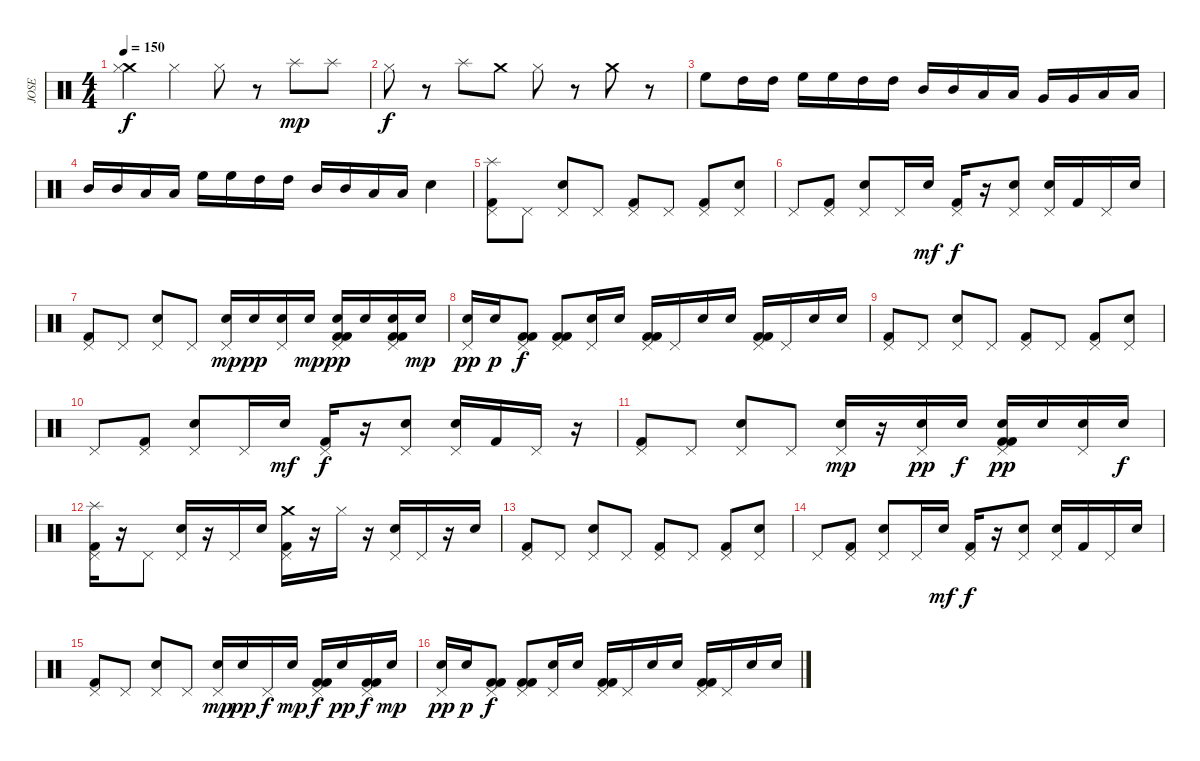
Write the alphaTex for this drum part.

\track ("JOSE" "JOSE") {instrument percussion}
\staff {score}
\articulation defaults
\ts (4 4)
\tempo 150
\clef neutral
\ks c
("Crash medium (hit)" "Hi-Hat (closed)").4{dy f} "Hi-Hat (closed)".4 "Hi-Hat (closed)".8 r.8 "Splash (hit)".8{dy mp} "Splash (hit)".8 |
"Hi-Hat (closed)".8{dy f} r.8 "Splash (hit)".8 "Crash medium (hit)".8 "Hi-Hat (closed)".8 r.8 "Crash medium (hit)".8 r.8 |
"High Floor Tom (hit)".8 "High Tom (hit)".16 "High Tom (hit)".16 "High Floor Tom (hit)".16 "High Floor Tom (hit)".16 "High Tom (hit)".16 "High Tom (hit)".16 "Mid Tom (hit)".16 "Mid Tom (hit)".16 "Low Tom (hit)".16 "Low Tom (hit)".16 "Very Low Tom (hit)".16 "Very Low Tom (hit)".16 "Low Floor Tom (hit)".16 "Low Floor Tom (hit)".16 |
"Mid Tom (hit)".16 "Mid Tom (hit)".16 "Low Tom (hit)".16 "Low Tom (hit)".16 "High Floor Tom (hit)".16 "High Floor Tom (hit)".16 "High Tom (hit)".16 "High Tom (hit)".16 "Mid Tom (hit)".16 "Mid Tom (hit)".16 "Low Tom (hit)".16 "Low Tom (hit)".16 "Electric Snare (hit)".4 |
("Pedal Hi-Hat (hit)" "Splash (hit)" "Kick (hit) 2").8 "Pedal Hi-Hat (hit)".8 ("Pedal Hi-Hat (hit)" "Electric Snare (hit)").8 "Pedal Hi-Hat (hit)".8 ("Pedal Hi-Hat (hit)" "Kick (hit) 2").8 "Pedal Hi-Hat (hit)".8 ("Pedal Hi-Hat (hit)" "Kick (hit) 2").8 ("Pedal Hi-Hat (hit)" "Electric Snare (hit)").8 |
"Pedal Hi-Hat (hit)".8 ("Pedal Hi-Hat (hit)" "Kick (hit) 2").8 ("Pedal Hi-Hat (hit)" "Electric Snare (hit)").8 "Pedal Hi-Hat (hit)".16 "Electric Snare (hit)".16{dy mf} ("Pedal Hi-Hat (hit)" "Kick (hit) 2").16{dy f} r.16 ("Pedal Hi-Hat (hit)" "Electric Snare (hit)").8 ("Pedal Hi-Hat (hit)" "Electric Snare (hit)").16 "Kick (hit) 2".16 "Pedal Hi-Hat (hit)".16 "Electric Snare (hit)".16 |
("Pedal Hi-Hat (hit)" "Kick (hit) 2").8 "Pedal Hi-Hat (hit)".8 ("Pedal Hi-Hat (hit)" "Electric Snare (hit)").8 "Pedal Hi-Hat (hit)".8 ("Pedal Hi-Hat (hit)" "Electric Snare (hit)").16{dy mp} "Electric Snare (hit)".16{dy pp} ("Pedal Hi-Hat (hit)" "Electric Snare (hit)").16 "Electric Snare (hit)".16{dy mp} ("Pedal Hi-Hat (hit)" "Electric Snare (hit)" "Kick (hit) 2" "Kick (hit) 2").16{dy pp} "Electric Snare (hit)".16 ("Pedal Hi-Hat (hit)" "Electric Snare (hit)" "Kick (hit) 2" "Kick (hit) 2").16 "Electric Snare (hit)".16{dy mp} |
("Pedal Hi-Hat (hit)" "Electric Snare (hit)").16{dy pp} "Electric Snare (hit)".16{dy p} ("Pedal Hi-Hat (hit)" "Kick (hit) 2" "Kick (hit) 2").8{dy f} ("Pedal Hi-Hat (hit)" "Kick (hit) 2" "Kick (hit) 2").8 ("Pedal Hi-Hat (hit)" "Electric Snare (hit)").16 "Electric Snare (hit)".16 ("Pedal Hi-Hat (hit)" "Kick (hit) 2" "Kick (hit) 2").16 "Pedal Hi-Hat (hit)".16 "Electric Snare (hit)".16 "Electric Snare (hit)".16 ("Pedal Hi-Hat (hit)" "Kick (hit) 2" "Kick (hit) 2").16 "Pedal Hi-Hat (hit)".16 "Electric Snare (hit)".16 "Electric Snare (hit)".16 |
("Pedal Hi-Hat (hit)" "Kick (hit) 2").8 "Pedal Hi-Hat (hit)".8 ("Pedal Hi-Hat (hit)" "Electric Snare (hit)").8 "Pedal Hi-Hat (hit)".8 ("Pedal Hi-Hat (hit)" "Kick (hit) 2").8 "Pedal Hi-Hat (hit)".8 ("Pedal Hi-Hat (hit)" "Kick (hit) 2").8 ("Pedal Hi-Hat (hit)" "Electric Snare (hit)").8 |
"Pedal Hi-Hat (hit)".8 ("Pedal Hi-Hat (hit)" "Kick (hit) 2").8 ("Pedal Hi-Hat (hit)" "Electric Snare (hit)").8 "Pedal Hi-Hat (hit)".16 "Electric Snare (hit)".16{dy mf} ("Pedal Hi-Hat (hit)" "Kick (hit) 2").16{dy f} r.16 ("Pedal Hi-Hat (hit)" "Electric Snare (hit)").8 ("Pedal Hi-Hat (hit)" "Electric Snare (hit)").16 "Kick (hit) 2".16 "Pedal Hi-Hat (hit)".16 r.16 |
("Pedal Hi-Hat (hit)" "Kick (hit) 2").8 "Pedal Hi-Hat (hit)".8 ("Pedal Hi-Hat (hit)" "Electric Snare (hit)").8 "Pedal Hi-Hat (hit)".8 ("Pedal Hi-Hat (hit)" "Electric Snare (hit)").16{dy mp} r.16 ("Pedal Hi-Hat (hit)" "Electric Snare (hit)").16{dy pp} "Electric Snare (hit)".16{dy f} ("Pedal Hi-Hat (hit)" "Electric Snare (hit)" "Kick (hit) 2" "Kick (hit) 2").16{dy pp} "Electric Snare (hit)".16 ("Pedal Hi-Hat (hit)" "Electric Snare (hit)").16 "Electric Snare (hit)".16{dy f} |
("Pedal Hi-Hat (hit)" "Splash (hit)" "Kick (hit) 2").16 r.16 "Pedal Hi-Hat (hit)".8 ("Pedal Hi-Hat (hit)" "Electric Snare (hit)").16 r.16 "Pedal Hi-Hat (hit)".16 "Electric Snare (hit)".16 ("Pedal Hi-Hat (hit)" "Crash medium (hit)" "Kick (hit) 2").16 r.16 "Hi-Hat (closed)".16 r.16 ("Pedal Hi-Hat (hit)" "Electric Snare (hit)").16 "Pedal Hi-Hat (hit)".16 r.16 "Electric Snare (hit)".16 |
("Pedal Hi-Hat (hit)" "Kick (hit) 2").8 "Pedal Hi-Hat (hit)".8 ("Pedal Hi-Hat (hit)" "Electric Snare (hit)").8 "Pedal Hi-Hat (hit)".8 ("Pedal Hi-Hat (hit)" "Kick (hit) 2").8 "Pedal Hi-Hat (hit)".8 ("Pedal Hi-Hat (hit)" "Kick (hit) 2").8 ("Pedal Hi-Hat (hit)" "Electric Snare (hit)").8 |
"Pedal Hi-Hat (hit)".8 ("Pedal Hi-Hat (hit)" "Kick (hit) 2").8 ("Pedal Hi-Hat (hit)" "Electric Snare (hit)").8 "Pedal Hi-Hat (hit)".16 "Electric Snare (hit)".16{dy mf} ("Pedal Hi-Hat (hit)" "Kick (hit) 2").16{dy f} r.16 ("Pedal Hi-Hat (hit)" "Electric Snare (hit)").8 ("Pedal Hi-Hat (hit)" "Electric Snare (hit)").16 "Kick (hit) 2".16 "Pedal Hi-Hat (hit)".16 "Electric Snare (hit)".16 |
("Pedal Hi-Hat (hit)" "Kick (hit) 2").8 "Pedal Hi-Hat (hit)".8 ("Pedal Hi-Hat (hit)" "Electric Snare (hit)").8 "Pedal Hi-Hat (hit)".8 ("Pedal Hi-Hat (hit)" "Electric Snare (hit)").16{dy mp} "Electric Snare (hit)".16{dy pp} "Pedal Hi-Hat (hit)".16{dy f} "Electric Snare (hit)".16{dy mp} ("Pedal Hi-Hat (hit)" "Kick (hit) 2" "Kick (hit) 2").16{dy f} "Electric Snare (hit)".16{dy pp} ("Pedal Hi-Hat (hit)" "Kick (hit) 2" "Kick (hit) 2").16{dy f} "Electric Snare (hit)".16{dy mp} |
("Pedal Hi-Hat (hit)" "Electric Snare (hit)").16{dy pp} "Electric Snare (hit)".16{dy p} ("Pedal Hi-Hat (hit)" "Kick (hit) 2" "Kick (hit) 2").8{dy f} ("Pedal Hi-Hat (hit)" "Kick (hit) 2" "Kick (hit) 2").8 ("Pedal Hi-Hat (hit)" "Electric Snare (hit)").16 "Electric Snare (hit)".16 ("Pedal Hi-Hat (hit)" "Kick (hit) 2" "Kick (hit) 2").16 "Pedal Hi-Hat (hit)".16 "Electric Snare (hit)".16 "Electric Snare (hit)".16 ("Pedal Hi-Hat (hit)" "Kick (hit) 2" "Kick (hit) 2").16 "Pedal Hi-Hat (hit)".16 "Electric Snare (hit)".16 "Electric Snare (hit)".16
